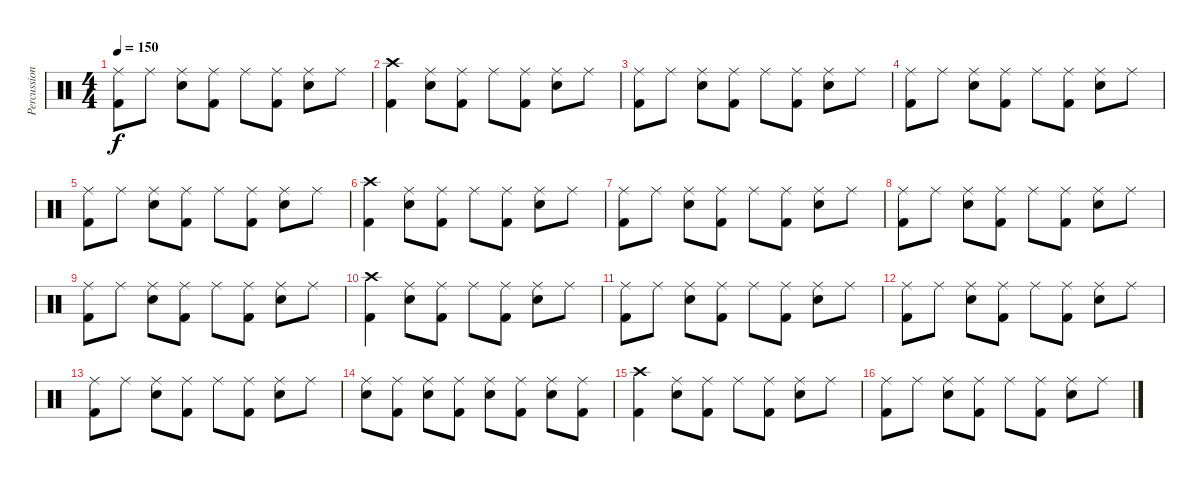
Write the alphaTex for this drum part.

\track ("Percussions" "Percussion") {instrument percussion}
\staff {score}
\articulation defaults
\ts (4 4)
\tempo 150
\clef neutral
\ks c
("Ride (middle)" "Kick (hit) 2").8{dy f} "Ride (middle)".8 ("Ride (middle)" "Snare (hit) 2").8 ("Ride (middle)" "Kick (hit) 2").8 "Ride (middle)".8 ("Ride (middle)" "Kick (hit) 2").8 ("Ride (middle)" "Snare (hit) 2").8 "Ride (middle)".8 |
("Crash high (hit)" "Kick (hit) 2").4 ("Ride (middle)" "Snare (hit) 2").8 ("Ride (middle)" "Kick (hit) 2").8 "Ride (middle)".8 ("Ride (middle)" "Kick (hit) 2").8 ("Ride (middle)" "Snare (hit) 2").8 "Ride (middle)".8 |
("Ride (middle)" "Kick (hit) 2").8 "Ride (middle)".8 ("Ride (middle)" "Snare (hit) 2").8 ("Ride (middle)" "Kick (hit) 2").8 "Ride (middle)".8 ("Ride (middle)" "Kick (hit) 2").8 ("Ride (middle)" "Snare (hit) 2").8 "Ride (middle)".8 |
("Ride (middle)" "Kick (hit) 2").8 "Ride (middle)".8 ("Ride (middle)" "Snare (hit) 2").8 ("Ride (middle)" "Kick (hit) 2").8 "Ride (middle)".8 ("Ride (middle)" "Kick (hit) 2").8 ("Ride (middle)" "Snare (hit) 2").8 "Ride (middle)".8 |
("Ride (middle)" "Kick (hit) 2").8 "Ride (middle)".8 ("Ride (middle)" "Snare (hit) 2").8 ("Ride (middle)" "Kick (hit) 2").8 "Ride (middle)".8 ("Ride (middle)" "Kick (hit) 2").8 ("Ride (middle)" "Snare (hit) 2").8 "Ride (middle)".8 |
("Crash high (hit)" "Kick (hit) 2").4 ("Ride (middle)" "Snare (hit) 2").8 ("Ride (middle)" "Kick (hit) 2").8 "Ride (middle)".8 ("Ride (middle)" "Kick (hit) 2").8 ("Ride (middle)" "Snare (hit) 2").8 "Ride (middle)".8 |
("Ride (middle)" "Kick (hit) 2").8 "Ride (middle)".8 ("Ride (middle)" "Snare (hit) 2").8 ("Ride (middle)" "Kick (hit) 2").8 "Ride (middle)".8 ("Ride (middle)" "Kick (hit) 2").8 ("Ride (middle)" "Snare (hit) 2").8 "Ride (middle)".8 |
("Ride (middle)" "Kick (hit) 2").8 "Ride (middle)".8 ("Ride (middle)" "Snare (hit) 2").8 ("Ride (middle)" "Kick (hit) 2").8 "Ride (middle)".8 ("Ride (middle)" "Kick (hit) 2").8 ("Ride (middle)" "Snare (hit) 2").8 "Ride (middle)".8 |
("Ride (middle)" "Kick (hit) 2").8 "Ride (middle)".8 ("Ride (middle)" "Snare (hit) 2").8 ("Ride (middle)" "Kick (hit) 2").8 "Ride (middle)".8 ("Ride (middle)" "Kick (hit) 2").8 ("Ride (middle)" "Snare (hit) 2").8 "Ride (middle)".8 |
("Crash high (hit)" "Kick (hit) 2").4 ("Ride (middle)" "Snare (hit) 2").8 ("Ride (middle)" "Kick (hit) 2").8 "Ride (middle)".8 ("Ride (middle)" "Kick (hit) 2").8 ("Ride (middle)" "Snare (hit) 2").8 "Ride (middle)".8 |
("Ride (middle)" "Kick (hit) 2").8 "Ride (middle)".8 ("Ride (middle)" "Snare (hit) 2").8 ("Ride (middle)" "Kick (hit) 2").8 "Ride (middle)".8 ("Ride (middle)" "Kick (hit) 2").8 ("Ride (middle)" "Snare (hit) 2").8 "Ride (middle)".8 |
("Ride (middle)" "Kick (hit) 2").8 "Ride (middle)".8 ("Ride (middle)" "Snare (hit) 2").8 ("Ride (middle)" "Kick (hit) 2").8 "Ride (middle)".8 ("Ride (middle)" "Kick (hit) 2").8 ("Ride (middle)" "Snare (hit) 2").8 "Ride (middle)".8 |
("Ride (middle)" "Kick (hit) 2").8 "Ride (middle)".8 ("Ride (middle)" "Snare (hit) 2").8 ("Ride (middle)" "Kick (hit) 2").8 "Ride (middle)".8 ("Ride (middle)" "Kick (hit) 2").8 ("Ride (middle)" "Snare (hit) 2").8 "Ride (middle)".8 |
("Ride (middle)" "Snare (hit) 2").8 ("Ride (middle)" "Kick (hit) 2").8 ("Ride (middle)" "Snare (hit) 2").8 ("Ride (middle)" "Kick (hit) 2").8 ("Ride (middle)" "Snare (hit) 2").8 ("Ride (middle)" "Kick (hit) 2").8 ("Ride (middle)" "Snare (hit) 2").8 ("Ride (middle)" "Kick (hit) 2").8 |
("Crash high (hit)" "Kick (hit) 2").4 ("Ride (middle)" "Snare (hit) 2").8 ("Ride (middle)" "Kick (hit) 2").8 "Ride (middle)".8 ("Ride (middle)" "Kick (hit) 2").8 ("Ride (middle)" "Snare (hit) 2").8 "Ride (middle)".8 |
("Ride (middle)" "Kick (hit) 2").8 "Ride (middle)".8 ("Ride (middle)" "Snare (hit) 2").8 ("Ride (middle)" "Kick (hit) 2").8 "Ride (middle)".8 ("Ride (middle)" "Kick (hit) 2").8 ("Ride (middle)" "Snare (hit) 2").8 "Ride (middle)".8
